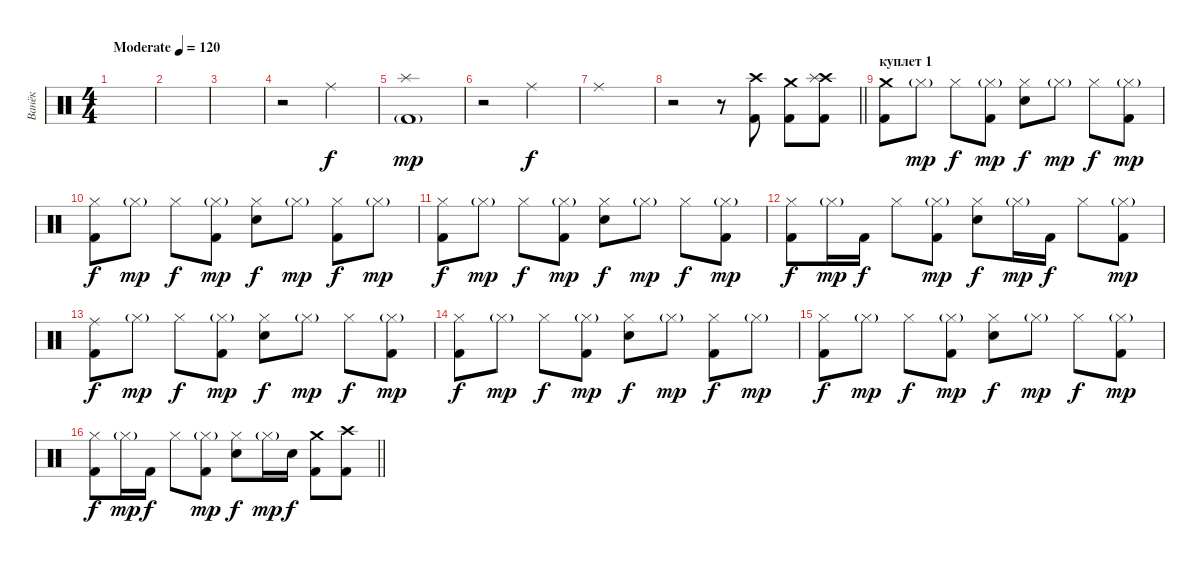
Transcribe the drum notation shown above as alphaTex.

\track ("Ванёк" "Ванёк") {instrument percussion}
\staff {score}
\articulation defaults
\ts (4 4)
\tempo (120 "Moderate")
\clef neutral
\ks c
|
|
|
r.2 "Ride (middle)".2 |
("Splash (hit)" "Kick (hit) 2"{g}).1{dy mp} |
r.2 "Ride (middle)".2{dy f} |
"Ride (middle)".1 |
\barLineRight lightlight
r.2 r.8 ("Crash high (hit)" "Kick (hit) 2").8 ("Crash medium (hit)" "Kick (hit) 2").8 ("Crash high (hit)" "Splash (hit)" "Kick (hit) 2").8 |
\section ("" "куплет 1")
("Crash medium (hit)" "Kick (hit) 2").8 "Hi-Hat (closed)"{g}.8{dy mp} "Hi-Hat (closed)".8{dy f} ("Hi-Hat (closed)"{g} "Kick (hit) 2").8{dy mp} ("Hi-Hat (closed)" "Snare (hit) 2").8{dy f} "Hi-Hat (closed)"{g}.8{dy mp} "Hi-Hat (closed)".8{dy f} ("Hi-Hat (closed)"{g} "Kick (hit) 2").8{dy mp} |
("Hi-Hat (closed)" "Kick (hit) 2").8{dy f} "Hi-Hat (closed)"{g}.8{dy mp} "Hi-Hat (closed)".8{dy f} ("Hi-Hat (closed)"{g} "Kick (hit) 2").8{dy mp} ("Hi-Hat (closed)" "Snare (hit) 2").8{dy f} "Hi-Hat (closed)"{g}.8{dy mp} ("Hi-Hat (closed)" "Kick (hit) 2").8{dy f} "Hi-Hat (closed)"{g}.8{dy mp} |
("Hi-Hat (closed)" "Kick (hit) 2").8{dy f} "Hi-Hat (closed)"{g}.8{dy mp} "Hi-Hat (closed)".8{dy f} ("Hi-Hat (closed)"{g} "Kick (hit) 2").8{dy mp} ("Hi-Hat (closed)" "Snare (hit) 2").8{dy f} "Hi-Hat (closed)"{g}.8{dy mp} "Hi-Hat (closed)".8{dy f} ("Hi-Hat (closed)"{g} "Kick (hit) 2").8{dy mp} |
("Hi-Hat (closed)" "Kick (hit) 2").8{dy f} "Hi-Hat (closed)"{g}.16{dy mp} "Kick (hit) 2".16{dy f} "Hi-Hat (closed)".8 ("Hi-Hat (closed)"{g} "Kick (hit) 2").8{dy mp} ("Hi-Hat (closed)" "Snare (hit) 2").8{dy f} "Hi-Hat (closed)"{g}.16{dy mp} "Kick (hit) 2".16{dy f} "Hi-Hat (closed)".8 ("Hi-Hat (closed)"{g} "Kick (hit) 2").8{dy mp} |
("Ride (middle)" "Kick (hit) 2").8{dy f} "Hi-Hat (closed)"{g}.8{dy mp} "Hi-Hat (closed)".8{dy f} ("Hi-Hat (closed)"{g} "Kick (hit) 2").8{dy mp} ("Hi-Hat (closed)" "Snare (hit) 2").8{dy f} "Hi-Hat (closed)"{g}.8{dy mp} "Hi-Hat (closed)".8{dy f} ("Hi-Hat (closed)"{g} "Kick (hit) 2").8{dy mp} |
("Hi-Hat (closed)" "Kick (hit) 2").8{dy f} "Hi-Hat (closed)"{g}.8{dy mp} "Hi-Hat (closed)".8{dy f} ("Hi-Hat (closed)"{g} "Kick (hit) 2").8{dy mp} ("Hi-Hat (closed)" "Snare (hit) 2").8{dy f} "Hi-Hat (closed)"{g}.8{dy mp} ("Hi-Hat (closed)" "Kick (hit) 2").8{dy f} "Hi-Hat (closed)"{g}.8{dy mp} |
("Hi-Hat (closed)" "Kick (hit) 2").8{dy f} "Hi-Hat (closed)"{g}.8{dy mp} "Hi-Hat (closed)".8{dy f} ("Hi-Hat (closed)"{g} "Kick (hit) 2").8{dy mp} ("Hi-Hat (closed)" "Snare (hit) 2").8{dy f} "Hi-Hat (closed)"{g}.8{dy mp} "Hi-Hat (closed)".8{dy f} ("Hi-Hat (closed)"{g} "Kick (hit) 2").8{dy mp} |
\barLineRight lightlight
("Hi-Hat (closed)" "Kick (hit) 2").8{dy f} "Hi-Hat (closed)"{g}.16{dy mp} "Kick (hit) 2".16{dy f} "Hi-Hat (closed)".8 ("Hi-Hat (closed)"{g} "Kick (hit) 2").8{dy mp} ("Hi-Hat (closed)" "Snare (hit) 2").8{dy f} "Hi-Hat (closed)"{g}.16{dy mp} "Snare (hit) 2".16{dy f} ("Crash medium (hit)" "Kick (hit) 2").8 ("Crash high (hit)" "Kick (hit) 2").8
